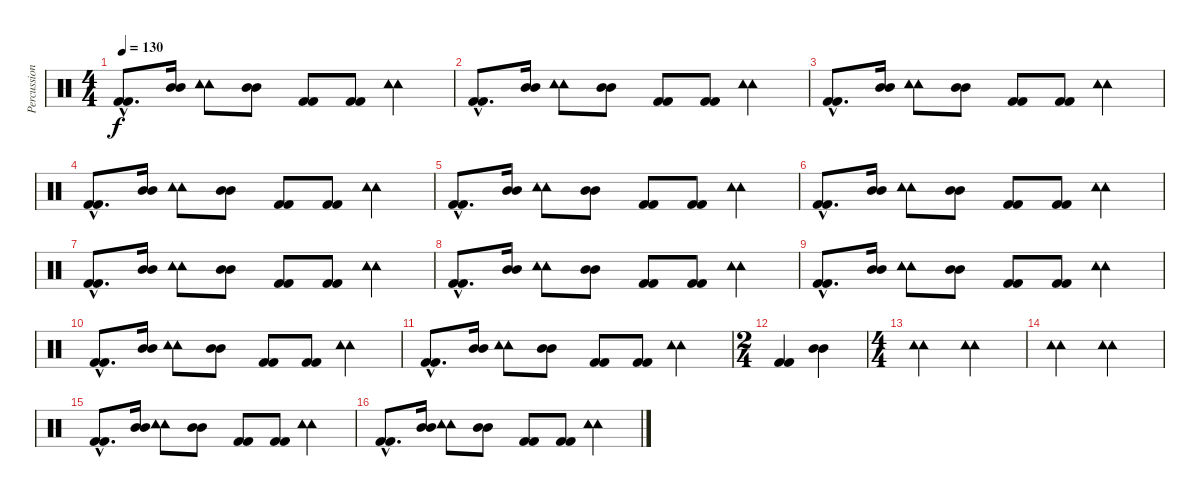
\track ("Percussion" "Percussion") {instrument percussion}
\staff {score}
\articulation defaults
\ts (4 4)
\tempo 130
\clef neutral
\ks c
("Kick (hit) 2"{hac} "Kick (hit) 2"{hac}).8{d dy f} ("Mid Tom (hit)" "Mid Tom (hit)").16 ("Tambourine (hit)" "Tambourine (hit)").8 ("Mid Tom (hit)" "Mid Tom (hit)").8 ("Kick (hit) 2" "Kick (hit) 2").8 ("Kick (hit) 2" "Kick (hit) 2").8 ("Tambourine (hit)" "Tambourine (hit)").4 |
("Kick (hit) 2"{hac} "Kick (hit) 2"{hac}).8{d} ("Mid Tom (hit)" "Mid Tom (hit)").16 ("Tambourine (hit)" "Tambourine (hit)").8 ("Mid Tom (hit)" "Mid Tom (hit)").8 ("Kick (hit) 2" "Kick (hit) 2").8 ("Kick (hit) 2" "Kick (hit) 2").8 ("Tambourine (hit)" "Tambourine (hit)").4 |
("Kick (hit) 2"{hac} "Kick (hit) 2"{hac}).8{d} ("Mid Tom (hit)" "Mid Tom (hit)").16 ("Tambourine (hit)" "Tambourine (hit)").8 ("Mid Tom (hit)" "Mid Tom (hit)").8 ("Kick (hit) 2" "Kick (hit) 2").8 ("Kick (hit) 2" "Kick (hit) 2").8 ("Tambourine (hit)" "Tambourine (hit)").4 |
("Kick (hit) 2"{hac} "Kick (hit) 2"{hac}).8{d} ("Mid Tom (hit)" "Mid Tom (hit)").16 ("Tambourine (hit)" "Tambourine (hit)").8 ("Mid Tom (hit)" "Mid Tom (hit)").8 ("Kick (hit) 2" "Kick (hit) 2").8 ("Kick (hit) 2" "Kick (hit) 2").8 ("Tambourine (hit)" "Tambourine (hit)").4 |
("Kick (hit) 2"{hac} "Kick (hit) 2"{hac}).8{d} ("Mid Tom (hit)" "Mid Tom (hit)").16 ("Tambourine (hit)" "Tambourine (hit)").8 ("Mid Tom (hit)" "Mid Tom (hit)").8 ("Kick (hit) 2" "Kick (hit) 2").8 ("Kick (hit) 2" "Kick (hit) 2").8 ("Tambourine (hit)" "Tambourine (hit)").4 |
("Kick (hit) 2"{hac} "Kick (hit) 2"{hac}).8{d} ("Mid Tom (hit)" "Mid Tom (hit)").16 ("Tambourine (hit)" "Tambourine (hit)").8 ("Mid Tom (hit)" "Mid Tom (hit)").8 ("Kick (hit) 2" "Kick (hit) 2").8 ("Kick (hit) 2" "Kick (hit) 2").8 ("Tambourine (hit)" "Tambourine (hit)").4 |
("Kick (hit) 2"{hac} "Kick (hit) 2"{hac}).8{d} ("Mid Tom (hit)" "Mid Tom (hit)").16 ("Tambourine (hit)" "Tambourine (hit)").8 ("Mid Tom (hit)" "Mid Tom (hit)").8 ("Kick (hit) 2" "Kick (hit) 2").8 ("Kick (hit) 2" "Kick (hit) 2").8 ("Tambourine (hit)" "Tambourine (hit)").4 |
("Kick (hit) 2"{hac} "Kick (hit) 2"{hac}).8{d} ("Mid Tom (hit)" "Mid Tom (hit)").16 ("Tambourine (hit)" "Tambourine (hit)").8 ("Mid Tom (hit)" "Mid Tom (hit)").8 ("Kick (hit) 2" "Kick (hit) 2").8 ("Kick (hit) 2" "Kick (hit) 2").8 ("Tambourine (hit)" "Tambourine (hit)").4 |
("Kick (hit) 2"{hac} "Kick (hit) 2"{hac}).8{d} ("Mid Tom (hit)" "Mid Tom (hit)").16 ("Tambourine (hit)" "Tambourine (hit)").8 ("Mid Tom (hit)" "Mid Tom (hit)").8 ("Kick (hit) 2" "Kick (hit) 2").8 ("Kick (hit) 2" "Kick (hit) 2").8 ("Tambourine (hit)" "Tambourine (hit)").4 |
("Kick (hit) 2"{hac} "Kick (hit) 2"{hac}).8{d} ("Mid Tom (hit)" "Mid Tom (hit)").16 ("Tambourine (hit)" "Tambourine (hit)").8 ("Mid Tom (hit)" "Mid Tom (hit)").8 ("Kick (hit) 2" "Kick (hit) 2").8 ("Kick (hit) 2" "Kick (hit) 2").8 ("Tambourine (hit)" "Tambourine (hit)").4 |
("Kick (hit) 2"{hac} "Kick (hit) 2"{hac}).8{d} ("Mid Tom (hit)" "Mid Tom (hit)").16 ("Tambourine (hit)" "Tambourine (hit)").8 ("Mid Tom (hit)" "Mid Tom (hit)").8 ("Kick (hit) 2" "Kick (hit) 2").8 ("Kick (hit) 2" "Kick (hit) 2").8 ("Tambourine (hit)" "Tambourine (hit)").4 |
\ts (2 4)
("Kick (hit) 2" "Kick (hit) 2").4 ("Mid Tom (hit)" "Mid Tom (hit)").4 |
\ts (4 4)
("Tambourine (hit)" "Tambourine (hit)").2 ("Tambourine (hit)" "Tambourine (hit)").2 |
("Tambourine (hit)" "Tambourine (hit)").2 ("Tambourine (hit)" "Tambourine (hit)").2 |
("Kick (hit) 2"{hac} "Kick (hit) 2"{hac}).8{d} ("Mid Tom (hit)" "Mid Tom (hit)").16 ("Tambourine (hit)" "Tambourine (hit)").8 ("Mid Tom (hit)" "Mid Tom (hit)").8 ("Kick (hit) 2" "Kick (hit) 2").8 ("Kick (hit) 2" "Kick (hit) 2").8 ("Tambourine (hit)" "Tambourine (hit)").4 |
("Kick (hit) 2"{hac} "Kick (hit) 2"{hac}).8{d} ("Mid Tom (hit)" "Mid Tom (hit)").16 ("Tambourine (hit)" "Tambourine (hit)").8 ("Mid Tom (hit)" "Mid Tom (hit)").8 ("Kick (hit) 2" "Kick (hit) 2").8 ("Kick (hit) 2" "Kick (hit) 2").8 ("Tambourine (hit)" "Tambourine (hit)").4
